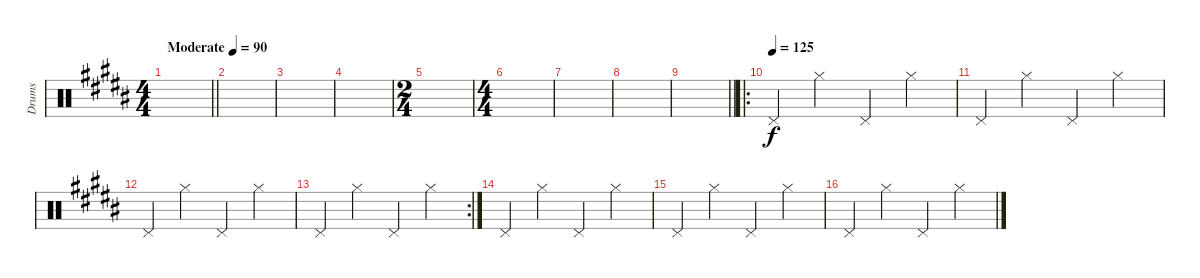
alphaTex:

\track ("Drums" "Drums") {instrument percussion}
\staff {score}
\articulation defaults
\ts (4 4)
\tempo (90 "Moderate")
\clef neutral
\barLineRight lightlight
\ks b
|
|
|
|
\ts (2 4)
|
\ts (4 4)
|
|
|
\barLineRight lightlight
|
\ro
\tempo (125)
"Pedal Hi-Hat (hit)".4 "Hi-Hat (closed)".4 "Pedal Hi-Hat (hit)".4 "Hi-Hat (closed)".4 |
"Pedal Hi-Hat (hit)".4 "Hi-Hat (closed)".4 "Pedal Hi-Hat (hit)".4 "Hi-Hat (closed)".4 |
"Pedal Hi-Hat (hit)".4 "Hi-Hat (closed)".4 "Pedal Hi-Hat (hit)".4 "Hi-Hat (closed)".4 |
\rc 2 "Pedal Hi-Hat (hit)".4 "Hi-Hat (closed)".4 "Pedal Hi-Hat (hit)".4 "Hi-Hat (closed)".4
|
"Pedal Hi-Hat (hit)".4 "Hi-Hat (closed)".4 "Pedal Hi-Hat (hit)".4 "Hi-Hat (closed)".4 |
"Pedal Hi-Hat (hit)".4 "Hi-Hat (closed)".4 "Pedal Hi-Hat (hit)".4 "Hi-Hat (closed)".4 |
"Pedal Hi-Hat (hit)".4 "Hi-Hat (closed)".4 "Pedal Hi-Hat (hit)".4 "Hi-Hat (closed)".4
